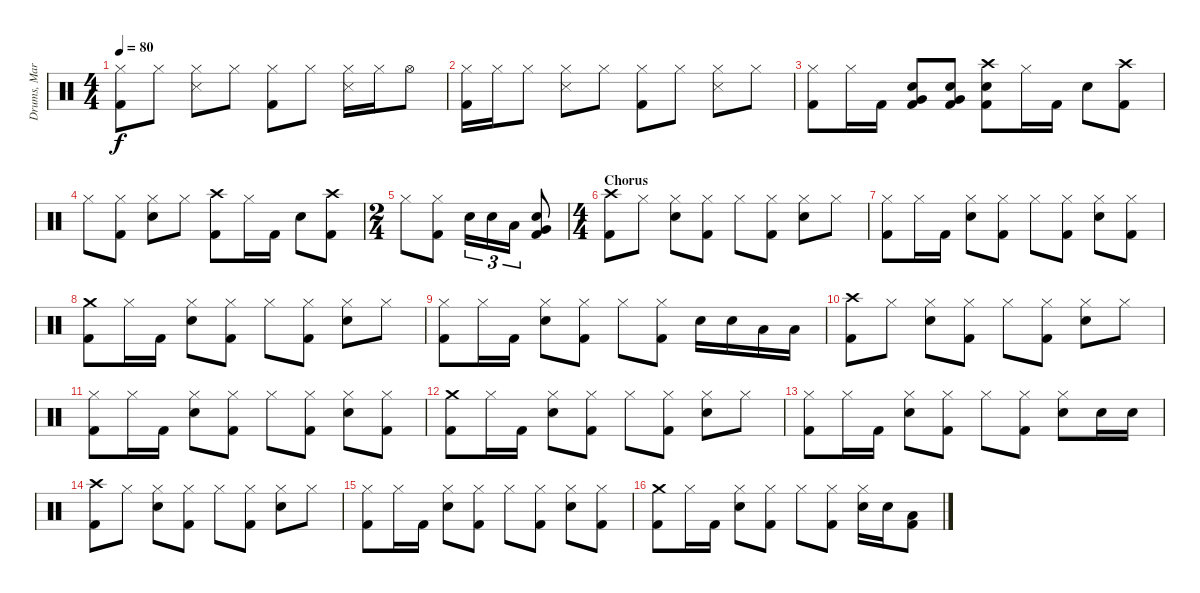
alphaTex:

\track ("Drums, Martina" "Drums, Mar") {instrument percussion}
\staff {score}
\articulation defaults
\ts (4 4)
\tempo 80
\clef neutral
\ks c
("Hi-Hat (closed)" "Kick (hit) 2").8{dy f} "Hi-Hat (closed)".8 ("Hi-Hat (closed)" "Snare (side stick) 3").8 "Hi-Hat (closed)".8 ("Hi-Hat (closed)" "Kick (hit) 2").8 "Hi-Hat (closed)".8 ("Hi-Hat (closed)" "Snare (side stick) 3").16 "Hi-Hat (closed)".16 "Hi-Hat (open)".8 |
("Hi-Hat (closed)" "Kick (hit) 2").16 "Hi-Hat (closed)".16 "Hi-Hat (closed)".8 ("Hi-Hat (closed)" "Snare (side stick) 3").8 "Hi-Hat (closed)".8 ("Hi-Hat (closed)" "Kick (hit) 2").8 "Hi-Hat (closed)".8 ("Hi-Hat (closed)" "Snare (side stick) 3").8 "Hi-Hat (closed)".8 |
("Hi-Hat (closed)" "Kick (hit) 2").8 "Hi-Hat (closed)".16 "Kick (hit) 2".16 ("Electric Snare (hit)" "Very Low Tom (hit)" "Kick (hit) 2").8 ("Electric Snare (hit)" "Very Low Tom (hit)" "Kick (hit) 2").8 ("Crash high (hit)" "Electric Snare (hit)" "Kick (hit) 2").8 "Hi-Hat (closed)".16 "Kick (hit) 2".16 "Electric Snare (hit)".8 ("Crash high (hit)" "Kick (hit) 2").8 |
"Hi-Hat (closed)".8 ("Hi-Hat (closed)" "Kick (hit) 2").8 ("Hi-Hat (closed)" "Electric Snare (hit)").8 "Hi-Hat (closed)".8 ("Crash high (hit)" "Kick (hit) 2").8 "Hi-Hat (closed)".16 "Kick (hit) 2".16 "Electric Snare (hit)".8 ("Crash high (hit)" "Kick (hit) 2").8 |
\ts (2 4)
"Hi-Hat (closed)".8 ("Hi-Hat (closed)" "Kick (hit) 2").8 "Electric Snare (hit)".16{tu (3 2)} "Electric Snare (hit)".16{tu (3 2)} "Low Tom (hit)".16{tu (3 2)} ("Electric Snare (hit)" "Very Low Tom (hit)" "Kick (hit) 2").8 |
\ts (4 4)
\section ("" "Chorus")
("Crash high (hit)" "Kick (hit) 2").8 "Hi-Hat (closed)".8 ("Hi-Hat (closed)" "Electric Snare (hit)").8 ("Hi-Hat (closed)" "Kick (hit) 2").8 "Hi-Hat (closed)".8 ("Hi-Hat (closed)" "Kick (hit) 2").8 ("Hi-Hat (closed)" "Electric Snare (hit)").8 "Hi-Hat (closed)".8 |
("Hi-Hat (closed)" "Kick (hit) 2").8 "Hi-Hat (closed)".16 "Kick (hit) 2".16 ("Hi-Hat (closed)" "Electric Snare (hit)").8 ("Hi-Hat (closed)" "Kick (hit) 2").8 "Hi-Hat (closed)".8 ("Hi-Hat (closed)" "Kick (hit) 2").8 ("Hi-Hat (closed)" "Electric Snare (hit)").8 ("Hi-Hat (closed)" "Kick (hit) 2").8 |
("Crash medium (hit)" "Kick (hit) 2").8 "Hi-Hat (closed)".16 "Kick (hit) 2".16 ("Hi-Hat (closed)" "Electric Snare (hit)").8 ("Hi-Hat (closed)" "Kick (hit) 2").8 "Hi-Hat (closed)".8 ("Hi-Hat (closed)" "Kick (hit) 2").8 ("Hi-Hat (closed)" "Electric Snare (hit)").8 "Hi-Hat (closed)".8 |
("Hi-Hat (closed)" "Kick (hit) 2").8 "Hi-Hat (closed)".16 "Kick (hit) 2".16 ("Hi-Hat (closed)" "Electric Snare (hit)").8 ("Hi-Hat (closed)" "Kick (hit) 2").8 "Hi-Hat (closed)".8 ("Hi-Hat (closed)" "Kick (hit) 2").8 "Electric Snare (hit)".16 "Electric Snare (hit)".16 "Low Tom (hit)".16 "Low Tom (hit)".16 |
("Crash high (hit)" "Kick (hit) 2").8 "Hi-Hat (closed)".8 ("Hi-Hat (closed)" "Electric Snare (hit)").8 ("Hi-Hat (closed)" "Kick (hit) 2").8 "Hi-Hat (closed)".8 ("Hi-Hat (closed)" "Kick (hit) 2").8 ("Hi-Hat (closed)" "Electric Snare (hit)").8 "Hi-Hat (closed)".8 |
("Hi-Hat (closed)" "Kick (hit) 2").8 "Hi-Hat (closed)".16 "Kick (hit) 2".16 ("Hi-Hat (closed)" "Electric Snare (hit)").8 ("Hi-Hat (closed)" "Kick (hit) 2").8 "Hi-Hat (closed)".8 ("Hi-Hat (closed)" "Kick (hit) 2").8 ("Hi-Hat (closed)" "Electric Snare (hit)").8 ("Hi-Hat (closed)" "Kick (hit) 2").8 |
("Crash medium (hit)" "Kick (hit) 2").8 "Hi-Hat (closed)".16 "Kick (hit) 2".16 ("Hi-Hat (closed)" "Electric Snare (hit)").8 ("Hi-Hat (closed)" "Kick (hit) 2").8 "Hi-Hat (closed)".8 ("Hi-Hat (closed)" "Kick (hit) 2").8 ("Hi-Hat (closed)" "Electric Snare (hit)").8 "Hi-Hat (closed)".8 |
("Hi-Hat (closed)" "Kick (hit) 2").8 "Hi-Hat (closed)".16 "Kick (hit) 2".16 ("Hi-Hat (closed)" "Electric Snare (hit)").8 ("Hi-Hat (closed)" "Kick (hit) 2").8 "Hi-Hat (closed)".8 ("Hi-Hat (closed)" "Kick (hit) 2").8 ("Hi-Hat (closed)" "Electric Snare (hit)").8 "Electric Snare (hit)".16 "Electric Snare (hit)".16 |
("Crash high (hit)" "Kick (hit) 2").8 "Hi-Hat (closed)".8 ("Hi-Hat (closed)" "Electric Snare (hit)").8 ("Hi-Hat (closed)" "Kick (hit) 2").8 "Hi-Hat (closed)".8 ("Hi-Hat (closed)" "Kick (hit) 2").8 ("Hi-Hat (closed)" "Electric Snare (hit)").8 "Hi-Hat (closed)".8 |
("Hi-Hat (closed)" "Kick (hit) 2").8 "Hi-Hat (closed)".16 "Kick (hit) 2".16 ("Hi-Hat (closed)" "Electric Snare (hit)").8 ("Hi-Hat (closed)" "Kick (hit) 2").8 "Hi-Hat (closed)".8 ("Hi-Hat (closed)" "Kick (hit) 2").8 ("Hi-Hat (closed)" "Electric Snare (hit)").8 ("Hi-Hat (closed)" "Kick (hit) 2").8 |
("Crash medium (hit)" "Kick (hit) 2").8 "Hi-Hat (closed)".16 "Kick (hit) 2".16 ("Hi-Hat (closed)" "Electric Snare (hit)").8 ("Hi-Hat (closed)" "Kick (hit) 2").8 "Hi-Hat (closed)".8 ("Hi-Hat (closed)" "Kick (hit) 2").8 ("Hi-Hat (closed)" "Electric Snare (hit)").16 "Electric Snare (hit)".16 ("Low Tom (hit)" "Kick (hit) 2").8
